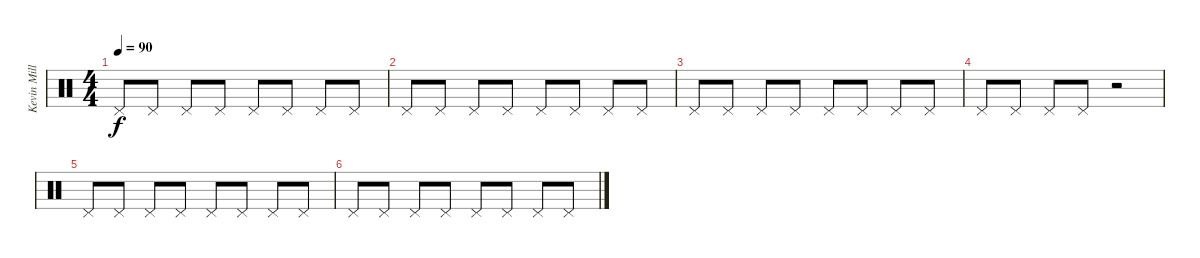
\track ("Kevin Miller (Drums)" "Kevin Mill") {instrument percussion}
\staff {score}
\articulation defaults
\ts (4 4)
\tempo 90
\clef neutral
\ks c "Pedal Hi-Hat (hit)".8{dy f} "Pedal Hi-Hat (hit)".8 "Pedal Hi-Hat (hit)".8 "Pedal Hi-Hat (hit)".8 "Pedal Hi-Hat (hit)".8 "Pedal Hi-Hat (hit)".8 "Pedal Hi-Hat (hit)".8 "Pedal Hi-Hat (hit)".8
|
"Pedal Hi-Hat (hit)".8 "Pedal Hi-Hat (hit)".8 "Pedal Hi-Hat (hit)".8 "Pedal Hi-Hat (hit)".8 "Pedal Hi-Hat (hit)".8 "Pedal Hi-Hat (hit)".8 "Pedal Hi-Hat (hit)".8 "Pedal Hi-Hat (hit)".8 |
"Pedal Hi-Hat (hit)".8 "Pedal Hi-Hat (hit)".8 "Pedal Hi-Hat (hit)".8 "Pedal Hi-Hat (hit)".8 "Pedal Hi-Hat (hit)".8 "Pedal Hi-Hat (hit)".8 "Pedal Hi-Hat (hit)".8 "Pedal Hi-Hat (hit)".8 |
"Pedal Hi-Hat (hit)".8 "Pedal Hi-Hat (hit)".8 "Pedal Hi-Hat (hit)".8 "Pedal Hi-Hat (hit)".8 r.2 |
"Pedal Hi-Hat (hit)".8 "Pedal Hi-Hat (hit)".8 "Pedal Hi-Hat (hit)".8 "Pedal Hi-Hat (hit)".8 "Pedal Hi-Hat (hit)".8 "Pedal Hi-Hat (hit)".8 "Pedal Hi-Hat (hit)".8 "Pedal Hi-Hat (hit)".8 |
"Pedal Hi-Hat (hit)".8 "Pedal Hi-Hat (hit)".8 "Pedal Hi-Hat (hit)".8 "Pedal Hi-Hat (hit)".8 "Pedal Hi-Hat (hit)".8 "Pedal Hi-Hat (hit)".8 "Pedal Hi-Hat (hit)".8 "Pedal Hi-Hat (hit)".8
